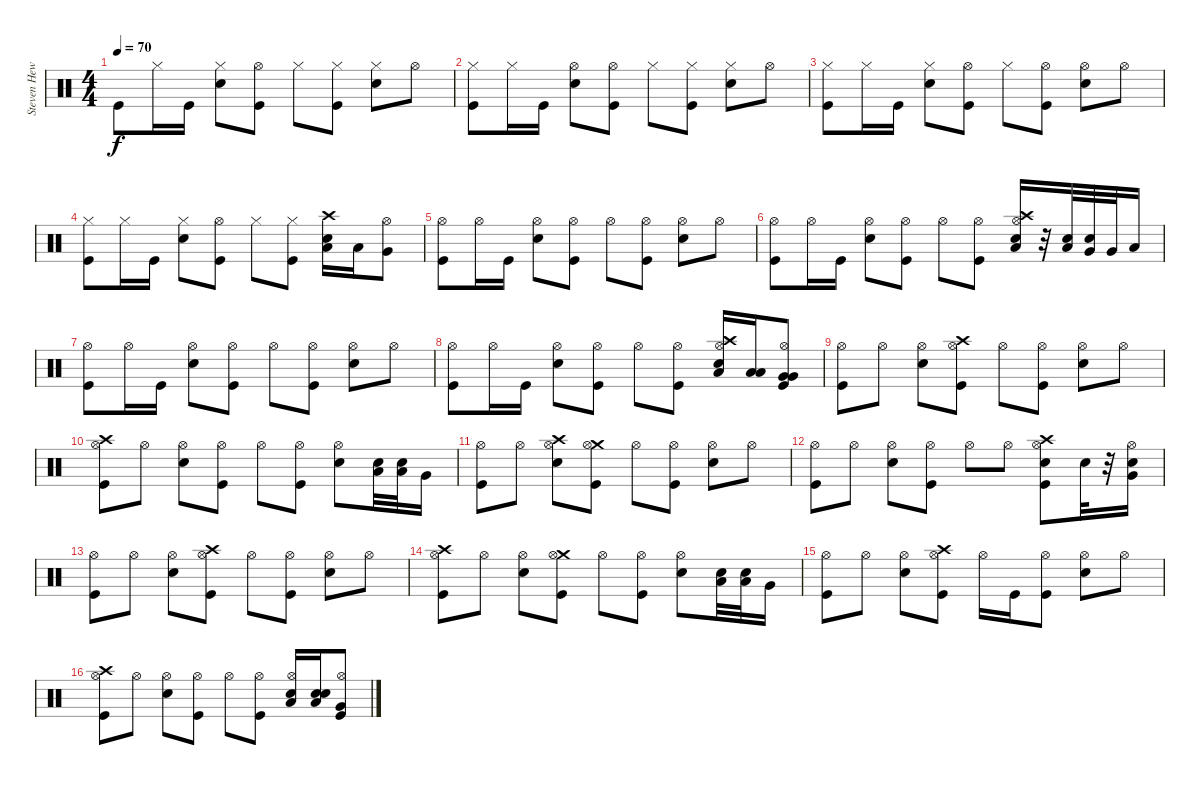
\track ("Steven Hewitt " "Steven Hew") {instrument percussion}
\staff {score}
\articulation defaults
\ts (4 4)
\tempo 70
\clef neutral
\ks c "Kick (hit)".8{dy f} "Hi-Hat (closed)".16 "Kick (hit)".16
("Snare (hit) 2" "Hi-Hat (closed)").8 ("Hi-Hat (open)" "Kick (hit)").8 "Hi-Hat (closed)".8 ("Hi-Hat (closed)" "Kick (hit)").8 ("Snare (hit) 2" "Hi-Hat (closed)").8 "Hi-Hat (open)".8 |
("Hi-Hat (closed)" "Kick (hit)").8 "Hi-Hat (closed)".16 "Kick (hit)".16 ("Snare (hit) 2" "Hi-Hat (open)").8 ("Hi-Hat (open)" "Kick (hit)").8 "Hi-Hat (closed)".8 ("Hi-Hat (closed)" "Kick (hit)").8 ("Snare (hit) 2" "Hi-Hat (closed)").8 "Hi-Hat (open)".8 |
("Hi-Hat (closed)" "Kick (hit)").8 "Hi-Hat (closed)".16 "Kick (hit)".16 ("Snare (hit) 2" "Hi-Hat (closed)").8 ("Hi-Hat (open)" "Kick (hit)").8 "Hi-Hat (closed)".8 ("Hi-Hat (open)" "Kick (hit)").8 ("Snare (hit) 2" "Hi-Hat (open)").8 "Hi-Hat (open)".8 |
("Hi-Hat (closed)" "Kick (hit)").8 "Hi-Hat (closed)".16 "Kick (hit)".16 ("Snare (hit) 2" "Hi-Hat (closed)").8 ("Hi-Hat (open)" "Kick (hit)").8 "Hi-Hat (closed)".8 ("Hi-Hat (closed)" "Kick (hit)").8 ("Snare (hit) 2" "Crash high (hit)" "Low Tom (hit)").16 "Low Tom (hit)".16 ("Hi-Hat (open)" "Very Low Tom (hit)").8 |
("Hi-Hat (open)" "Kick (hit)").8 "Hi-Hat (open)".16 "Kick (hit)".16 ("Snare (hit) 2" "Hi-Hat (open)").8 ("Hi-Hat (open)" "Kick (hit)").8 "Hi-Hat (open)".8 ("Hi-Hat (open)" "Kick (hit)").8 ("Snare (hit) 2" "Hi-Hat (open)").8 "Hi-Hat (open)".8 |
("Hi-Hat (open)" "Kick (hit)").8 "Hi-Hat (open)".16 "Kick (hit)".16 ("Snare (hit) 2" "Hi-Hat (open)").8 ("Hi-Hat (open)" "Kick (hit)").8 "Hi-Hat (open)".8 ("Hi-Hat (open)" "Kick (hit)").8 ("Crash high (hit)" "Snare (hit) 2" "Hi-Hat (open)" "Low Tom (hit)").16 r.32 ("Snare (hit) 2" "Low Tom (hit)").32 ("Snare (hit) 2" "Very Low Tom (hit)").32 "Very Low Tom (hit)".32 "Low Floor Tom (hit)".16 |
("Hi-Hat (open)" "Kick (hit)").8 "Hi-Hat (open)".16 "Kick (hit)".16 ("Snare (hit) 2" "Hi-Hat (open)").8 ("Hi-Hat (open)" "Kick (hit)").8 "Hi-Hat (open)".8 ("Hi-Hat (open)" "Kick (hit)").8 ("Snare (hit) 2" "Hi-Hat (open)").8 "Hi-Hat (open)".8 |
("Hi-Hat (open)" "Kick (hit)").8 "Hi-Hat (open)".16 "Kick (hit)".16 ("Snare (hit) 2" "Hi-Hat (open)").8 ("Hi-Hat (open)" "Kick (hit)").8 "Hi-Hat (open)".8 ("Hi-Hat (open)" "Kick (hit)").8 ("Crash high (hit)" "Snare (hit) 2" "Hi-Hat (open)" "Low Tom (hit)").16 ("Low Tom (hit)" "Low Tom (hit)").16 ("Very Low Tom (hit)" "Kick (hit)" "Hi-Hat (open)" "Very Low Tom (hit)").8 |
("Hi-Hat (open)" "Kick (hit)").8 "Hi-Hat (open)".8 ("Snare (hit) 2" "Hi-Hat (open)").8 ("Crash high (hit)" "Hi-Hat (open)" "Kick (hit)").8 "Hi-Hat (open)".8 ("Hi-Hat (open)" "Kick (hit)").8 ("Snare (hit) 2" "Hi-Hat (open)").8 "Hi-Hat (open)".8 |
("Crash high (hit)" "Hi-Hat (open)" "Kick (hit)").8 "Hi-Hat (open)".8 ("Snare (hit) 2" "Hi-Hat (open)").8 ("Hi-Hat (open)" "Kick (hit)").8 "Hi-Hat (open)".8 ("Hi-Hat (open)" "Kick (hit)").8 ("Snare (hit) 2" "Hi-Hat (open)").8 ("Snare (hit) 2" "Low Tom (hit)").32 ("Snare (hit) 2" "Low Tom (hit)").32 "Very Low Tom (hit)".16 |
("Hi-Hat (open)" "Kick (hit)").8 "Hi-Hat (open)".8 ("Crash high (hit)" "Snare (hit) 2" "Hi-Hat (open)").8 ("Crash medium (hit)" "Hi-Hat (open)" "Kick (hit)").8 "Hi-Hat (open)".8 ("Hi-Hat (open)" "Kick (hit)").8 ("Snare (hit) 2" "Hi-Hat (open)").8 "Hi-Hat (open)".8 |
("Hi-Hat (open)" "Kick (hit)").8 "Hi-Hat (open)".8 ("Snare (hit) 2" "Hi-Hat (open)").8 ("Hi-Hat (open)" "Kick (hit)").8 "Hi-Hat (open)".8 "Hi-Hat (open)".8 ("Crash high (hit)" "Snare (hit) 2" "Hi-Hat (open)" "Kick (hit)").8 "Snare (hit) 2".32 r.32 ("Snare (hit) 2" "Hi-Hat (open)" "Very Low Tom (hit)").16 |
("Hi-Hat (open)" "Kick (hit)").8 "Hi-Hat (open)".8 ("Snare (hit) 2" "Hi-Hat (open)").8 ("Crash high (hit)" "Hi-Hat (open)" "Kick (hit)").8 "Hi-Hat (open)".8 ("Hi-Hat (open)" "Kick (hit)").8 ("Snare (hit) 2" "Hi-Hat (open)").8 "Hi-Hat (open)".8 |
("Crash high (hit)" "Hi-Hat (open)" "Kick (hit)").8 "Hi-Hat (open)".8 ("Snare (hit) 2" "Hi-Hat (open)").8 ("Crash medium (hit)" "Hi-Hat (open)" "Kick (hit)").8 "Hi-Hat (open)".8 ("Hi-Hat (open)" "Kick (hit)").8 ("Snare (hit) 2" "Hi-Hat (open)").8 ("Snare (hit) 2" "Low Tom (hit)").32 ("Snare (hit) 2" "Low Tom (hit)").32 "Very Low Tom (hit)".16 |
("Hi-Hat (open)" "Kick (hit)").8 "Hi-Hat (open)".8 ("Snare (hit) 2" "Hi-Hat (open)").8 ("Crash high (hit)" "Hi-Hat (open)" "Kick (hit)").8 "Hi-Hat (open)".16 "Kick (hit)".16 ("Hi-Hat (open)" "Kick (hit)").8 ("Snare (hit) 2" "Hi-Hat (open)").8 "Hi-Hat (open)".8 |
("Crash high (hit)" "Hi-Hat (open)" "Kick (hit)").8 "Hi-Hat (open)".8 ("Snare (hit) 2" "Hi-Hat (open)").8 ("Hi-Hat (open)" "Kick (hit)").8 "Hi-Hat (open)".8 ("Hi-Hat (open)" "Kick (hit)").8 ("Low Tom (hit)" "Snare (hit) 2" "Hi-Hat (open)").16 ("Low Tom (hit)" "Snare (hit) 2" "Snare (hit) 2").16 ("Very Low Tom (hit)" "Hi-Hat (open)" "Kick (hit)").8
